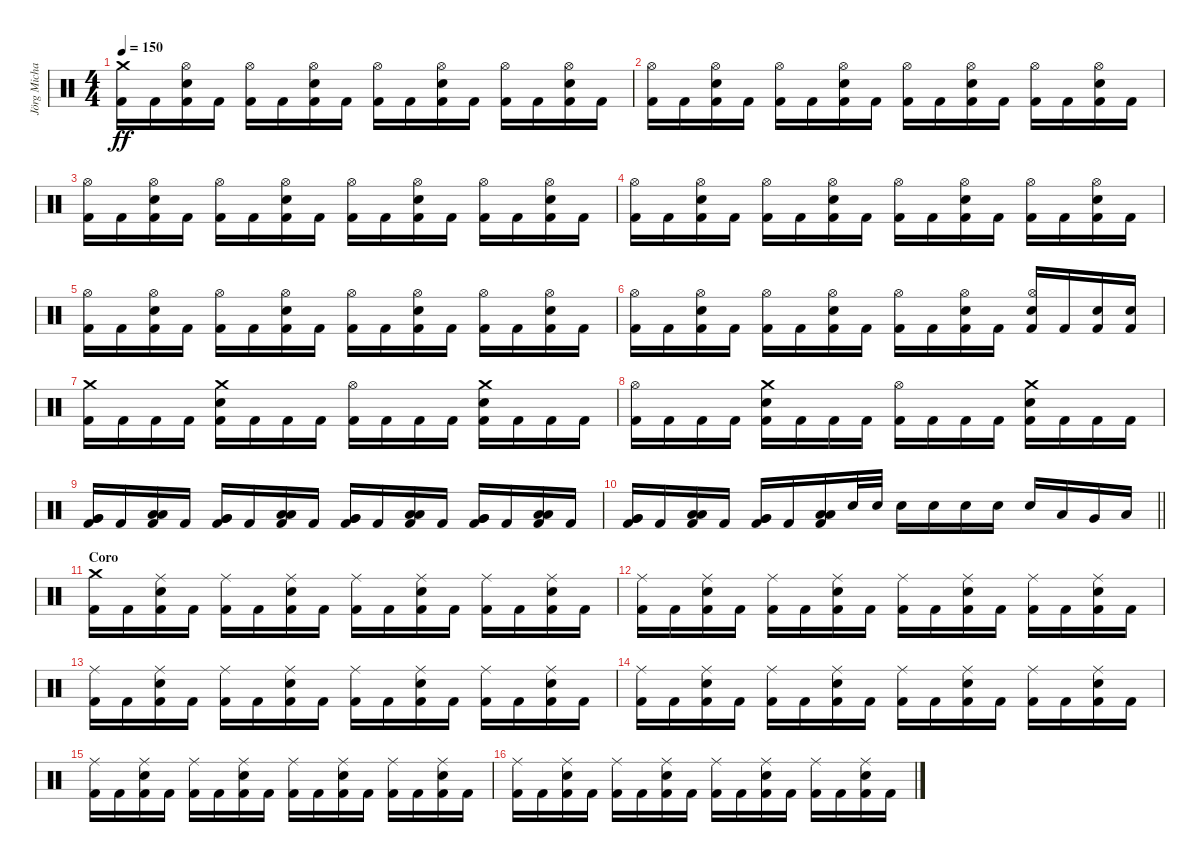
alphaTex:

\track ("Jörg Michael" "Jörg Micha") {instrument percussion}
\staff {score}
\articulation defaults
\ts (4 4)
\tempo 150
\clef neutral
\ks c
("Crash medium (hit)" "Kick (hit) 2").16{dy ff} "Kick (hit) 2".16 ("Hi-Hat (open)" "Electric Snare (hit)" "Kick (hit) 2").16 "Kick (hit) 2".16 ("Hi-Hat (open)" "Kick (hit) 2").16 "Kick (hit) 2".16 ("Hi-Hat (open)" "Electric Snare (hit)" "Kick (hit) 2").16 "Kick (hit) 2".16 ("Hi-Hat (open)" "Kick (hit) 2").16 "Kick (hit) 2".16 ("Hi-Hat (open)" "Electric Snare (hit)" "Kick (hit) 2").16 "Kick (hit) 2".16 ("Hi-Hat (open)" "Kick (hit) 2").16 "Kick (hit) 2".16 ("Hi-Hat (open)" "Electric Snare (hit)" "Kick (hit) 2").16 "Kick (hit) 2".16 |
("Hi-Hat (open)" "Kick (hit) 2").16 "Kick (hit) 2".16 ("Hi-Hat (open)" "Electric Snare (hit)" "Kick (hit) 2").16 "Kick (hit) 2".16 ("Hi-Hat (open)" "Kick (hit) 2").16 "Kick (hit) 2".16 ("Hi-Hat (open)" "Electric Snare (hit)" "Kick (hit) 2").16 "Kick (hit) 2".16 ("Hi-Hat (open)" "Kick (hit) 2").16 "Kick (hit) 2".16 ("Hi-Hat (open)" "Electric Snare (hit)" "Kick (hit) 2").16 "Kick (hit) 2".16 ("Hi-Hat (open)" "Kick (hit) 2").16 "Kick (hit) 2".16 ("Hi-Hat (open)" "Electric Snare (hit)" "Kick (hit) 2").16 "Kick (hit) 2".16 |
("Hi-Hat (open)" "Kick (hit) 2").16 "Kick (hit) 2".16 ("Hi-Hat (open)" "Electric Snare (hit)" "Kick (hit) 2").16 "Kick (hit) 2".16 ("Hi-Hat (open)" "Kick (hit) 2").16 "Kick (hit) 2".16 ("Hi-Hat (open)" "Electric Snare (hit)" "Kick (hit) 2").16 "Kick (hit) 2".16 ("Hi-Hat (open)" "Kick (hit) 2").16 "Kick (hit) 2".16 ("Hi-Hat (open)" "Electric Snare (hit)" "Kick (hit) 2").16 "Kick (hit) 2".16 ("Hi-Hat (open)" "Kick (hit) 2").16 "Kick (hit) 2".16 ("Hi-Hat (open)" "Electric Snare (hit)" "Kick (hit) 2").16 "Kick (hit) 2".16 |
("Hi-Hat (open)" "Kick (hit) 2").16 "Kick (hit) 2".16 ("Hi-Hat (open)" "Electric Snare (hit)" "Kick (hit) 2").16 "Kick (hit) 2".16 ("Hi-Hat (open)" "Kick (hit) 2").16 "Kick (hit) 2".16 ("Hi-Hat (open)" "Electric Snare (hit)" "Kick (hit) 2").16 "Kick (hit) 2".16 ("Hi-Hat (open)" "Kick (hit) 2").16 "Kick (hit) 2".16 ("Hi-Hat (open)" "Electric Snare (hit)" "Kick (hit) 2").16 "Kick (hit) 2".16 ("Hi-Hat (open)" "Kick (hit) 2").16 "Kick (hit) 2".16 ("Hi-Hat (open)" "Electric Snare (hit)" "Kick (hit) 2").16 "Kick (hit) 2".16 |
("Hi-Hat (open)" "Kick (hit) 2").16 "Kick (hit) 2".16 ("Hi-Hat (open)" "Electric Snare (hit)" "Kick (hit) 2").16 "Kick (hit) 2".16 ("Hi-Hat (open)" "Kick (hit) 2").16 "Kick (hit) 2".16 ("Hi-Hat (open)" "Electric Snare (hit)" "Kick (hit) 2").16 "Kick (hit) 2".16 ("Hi-Hat (open)" "Kick (hit) 2").16 "Kick (hit) 2".16 ("Hi-Hat (open)" "Electric Snare (hit)" "Kick (hit) 2").16 "Kick (hit) 2".16 ("Hi-Hat (open)" "Kick (hit) 2").16 "Kick (hit) 2".16 ("Hi-Hat (open)" "Electric Snare (hit)" "Kick (hit) 2").16 "Kick (hit) 2".16 |
("Hi-Hat (open)" "Kick (hit) 2").16 "Kick (hit) 2".16 ("Hi-Hat (open)" "Electric Snare (hit)" "Kick (hit) 2").16 "Kick (hit) 2".16 ("Hi-Hat (open)" "Kick (hit) 2").16 "Kick (hit) 2".16 ("Hi-Hat (open)" "Electric Snare (hit)" "Kick (hit) 2").16 "Kick (hit) 2".16 ("Hi-Hat (open)" "Kick (hit) 2").16 "Kick (hit) 2".16 ("Hi-Hat (open)" "Electric Snare (hit)" "Kick (hit) 2").16 "Kick (hit) 2".16 ("Hi-Hat (open)" "Electric Snare (hit)" "Kick (hit) 2").16 "Kick (hit) 2".16 ("Electric Snare (hit)" "Kick (hit) 2").16 ("Electric Snare (hit)" "Kick (hit) 2").16 |
("Crash medium (hit)" "Kick (hit) 2").16 "Kick (hit) 2".16 "Kick (hit) 2".16 "Kick (hit) 2".16 ("Crash medium (hit)" "Electric Snare (hit)" "Kick (hit) 2").16 "Kick (hit) 2".16 "Kick (hit) 2".16 "Kick (hit) 2".16 ("Hi-Hat (open)" "Kick (hit) 2").16 "Kick (hit) 2".16 "Kick (hit) 2".16 "Kick (hit) 2".16 ("Crash medium (hit)" "Electric Snare (hit)" "Kick (hit) 2").16 "Kick (hit) 2".16 "Kick (hit) 2".16 "Kick (hit) 2".16 |
("Hi-Hat (open)" "Kick (hit) 2").16 "Kick (hit) 2".16 "Kick (hit) 2".16 "Kick (hit) 2".16 ("Crash medium (hit)" "Electric Snare (hit)" "Kick (hit) 2").16 "Kick (hit) 2".16 "Kick (hit) 2".16 "Kick (hit) 2".16 ("Hi-Hat (open)" "Kick (hit) 2").16 "Kick (hit) 2".16 "Kick (hit) 2".16 "Kick (hit) 2".16 ("Crash medium (hit)" "Electric Snare (hit)" "Kick (hit) 2").16 "Kick (hit) 2".16 "Kick (hit) 2".16 "Kick (hit) 2".16 |
("Very Low Tom (hit)" "Very Low Tom (hit)" "Kick (hit) 2").16 "Kick (hit) 2".16 ("Low Tom (hit)" "Low Tom (hit)" "Kick (hit) 2").16 "Kick (hit) 2".16 ("Very Low Tom (hit)" "Very Low Tom (hit)" "Kick (hit) 2").16 "Kick (hit) 2".16 ("Low Tom (hit)" "Low Tom (hit)" "Kick (hit) 2").16 "Kick (hit) 2".16 ("Very Low Tom (hit)" "Very Low Tom (hit)" "Kick (hit) 2").16 "Kick (hit) 2".16 ("Low Tom (hit)" "Low Tom (hit)" "Kick (hit) 2").16 "Kick (hit) 2".16 ("Very Low Tom (hit)" "Very Low Tom (hit)" "Kick (hit) 2").16 "Kick (hit) 2".16 ("Low Tom (hit)" "Low Tom (hit)" "Kick (hit) 2").16 "Kick (hit) 2".16 |
\barLineRight lightlight
("Very Low Tom (hit)" "Very Low Tom (hit)" "Kick (hit) 2").16 "Kick (hit) 2".16 ("Low Tom (hit)" "Low Tom (hit)" "Kick (hit) 2").16 "Kick (hit) 2".16 ("Very Low Tom (hit)" "Very Low Tom (hit)" "Kick (hit) 2").16 "Kick (hit) 2".16 ("Low Tom (hit)" "Low Tom (hit)" "Kick (hit) 2").16 "Electric Snare (hit)".32 "Electric Snare (hit)".32 "Electric Snare (hit)".16 "Electric Snare (hit)".16 "Electric Snare (hit)".16 "Electric Snare (hit)".16 "Electric Snare (hit)".16 "Low Tom (hit)".16 "Very Low Tom (hit)".16 "Low Floor Tom (hit)".16 |
\section ("" "Coro")
("Crash medium (hit)" "Kick (hit) 2").16 "Kick (hit) 2".16 ("Ride (middle)" "Electric Snare (hit)" "Kick (hit) 2").16 "Kick (hit) 2".16 ("Ride (middle)" "Kick (hit) 2").16 "Kick (hit) 2".16 ("Ride (middle)" "Electric Snare (hit)" "Kick (hit) 2").16 "Kick (hit) 2".16 ("Ride (middle)" "Kick (hit) 2").16 "Kick (hit) 2".16 ("Ride (middle)" "Electric Snare (hit)" "Kick (hit) 2").16 "Kick (hit) 2".16 ("Ride (middle)" "Kick (hit) 2").16 "Kick (hit) 2".16 ("Ride (middle)" "Electric Snare (hit)" "Kick (hit) 2").16 "Kick (hit) 2".16 |
("Ride (middle)" "Kick (hit) 2").16 "Kick (hit) 2".16 ("Ride (middle)" "Electric Snare (hit)" "Kick (hit) 2").16 "Kick (hit) 2".16 ("Ride (middle)" "Kick (hit) 2").16 "Kick (hit) 2".16 ("Ride (middle)" "Electric Snare (hit)" "Kick (hit) 2").16 "Kick (hit) 2".16 ("Ride (middle)" "Kick (hit) 2").16 "Kick (hit) 2".16 ("Ride (middle)" "Electric Snare (hit)" "Kick (hit) 2").16 "Kick (hit) 2".16 ("Ride (middle)" "Kick (hit) 2").16 "Kick (hit) 2".16 ("Ride (middle)" "Electric Snare (hit)" "Kick (hit) 2").16 "Kick (hit) 2".16 |
("Ride (middle)" "Kick (hit) 2").16 "Kick (hit) 2".16 ("Ride (middle)" "Electric Snare (hit)" "Kick (hit) 2").16 "Kick (hit) 2".16 ("Ride (middle)" "Kick (hit) 2").16 "Kick (hit) 2".16 ("Ride (middle)" "Electric Snare (hit)" "Kick (hit) 2").16 "Kick (hit) 2".16 ("Ride (middle)" "Kick (hit) 2").16 "Kick (hit) 2".16 ("Ride (middle)" "Electric Snare (hit)" "Kick (hit) 2").16 "Kick (hit) 2".16 ("Ride (middle)" "Kick (hit) 2").16 "Kick (hit) 2".16 ("Ride (middle)" "Electric Snare (hit)" "Kick (hit) 2").16 "Kick (hit) 2".16 |
("Ride (middle)" "Kick (hit) 2").16 "Kick (hit) 2".16 ("Ride (middle)" "Electric Snare (hit)" "Kick (hit) 2").16 "Kick (hit) 2".16 ("Ride (middle)" "Kick (hit) 2").16 "Kick (hit) 2".16 ("Ride (middle)" "Electric Snare (hit)" "Kick (hit) 2").16 "Kick (hit) 2".16 ("Ride (middle)" "Kick (hit) 2").16 "Kick (hit) 2".16 ("Ride (middle)" "Electric Snare (hit)" "Kick (hit) 2").16 "Kick (hit) 2".16 ("Ride (middle)" "Kick (hit) 2").16 "Kick (hit) 2".16 ("Ride (middle)" "Electric Snare (hit)" "Kick (hit) 2").16 "Kick (hit) 2".16 |
("Ride (middle)" "Kick (hit) 2").16 "Kick (hit) 2".16 ("Ride (middle)" "Electric Snare (hit)" "Kick (hit) 2").16 "Kick (hit) 2".16 ("Ride (middle)" "Kick (hit) 2").16 "Kick (hit) 2".16 ("Ride (middle)" "Electric Snare (hit)" "Kick (hit) 2").16 "Kick (hit) 2".16 ("Ride (middle)" "Kick (hit) 2").16 "Kick (hit) 2".16 ("Ride (middle)" "Electric Snare (hit)" "Kick (hit) 2").16 "Kick (hit) 2".16 ("Ride (middle)" "Kick (hit) 2").16 "Kick (hit) 2".16 ("Ride (middle)" "Electric Snare (hit)" "Kick (hit) 2").16 "Kick (hit) 2".16 |
("Ride (middle)" "Kick (hit) 2").16 "Kick (hit) 2".16 ("Ride (middle)" "Electric Snare (hit)" "Kick (hit) 2").16 "Kick (hit) 2".16 ("Ride (middle)" "Kick (hit) 2").16 "Kick (hit) 2".16 ("Ride (middle)" "Electric Snare (hit)" "Kick (hit) 2").16 "Kick (hit) 2".16 ("Ride (middle)" "Kick (hit) 2").16 "Kick (hit) 2".16 ("Ride (middle)" "Electric Snare (hit)" "Kick (hit) 2").16 "Kick (hit) 2".16 ("Ride (middle)" "Kick (hit) 2").16 "Kick (hit) 2".16 ("Ride (middle)" "Electric Snare (hit)" "Kick (hit) 2").16 "Kick (hit) 2".16
